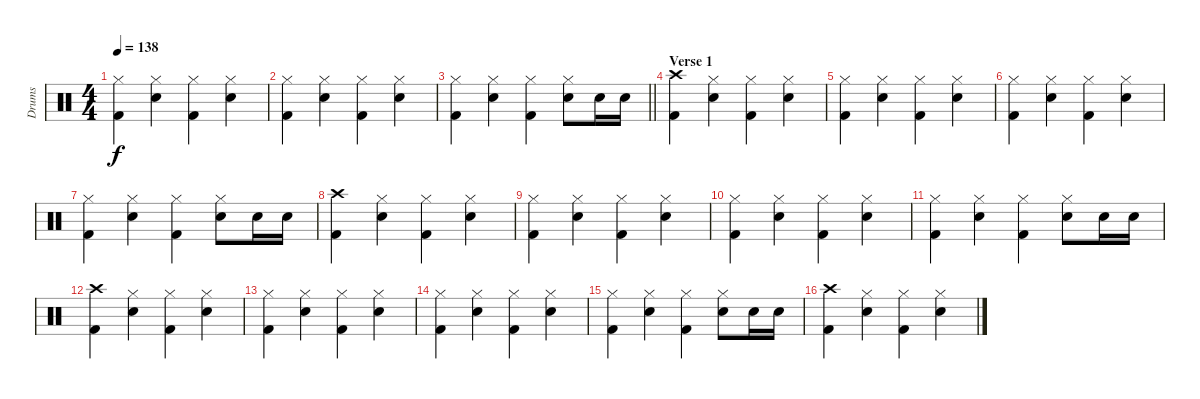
\track ("Drums" "Drums") {instrument percussion}
\staff {score}
\articulation defaults
\ts (4 4)
\tempo 138
\clef neutral
\ks c
("Hi-Hat (closed)" "Kick (hit) 2").4{dy f} ("Snare (hit) 2" "Hi-Hat (closed)").4 ("Hi-Hat (closed)" "Kick (hit) 2").4 ("Snare (hit) 2" "Hi-Hat (closed)").4 |
("Hi-Hat (closed)" "Kick (hit) 2").4 ("Snare (hit) 2" "Hi-Hat (closed)").4 ("Hi-Hat (closed)" "Kick (hit) 2").4 ("Snare (hit) 2" "Hi-Hat (closed)").4 |
\barLineRight lightlight
("Hi-Hat (closed)" "Kick (hit) 2").4 ("Snare (hit) 2" "Hi-Hat (closed)").4 ("Hi-Hat (closed)" "Kick (hit) 2").4 ("Snare (hit) 2" "Hi-Hat (closed)").8 "Snare (hit) 2".16 "Snare (hit) 2".16 |
\section ("" "Verse 1")
("Crash high (hit)" "Kick (hit) 2").4 ("Snare (hit) 2" "Hi-Hat (closed)").4 ("Hi-Hat (closed)" "Kick (hit) 2").4 ("Snare (hit) 2" "Hi-Hat (closed)").4 |
("Hi-Hat (closed)" "Kick (hit) 2").4 ("Snare (hit) 2" "Hi-Hat (closed)").4 ("Hi-Hat (closed)" "Kick (hit) 2").4 ("Snare (hit) 2" "Hi-Hat (closed)").4 |
("Hi-Hat (closed)" "Kick (hit) 2").4 ("Snare (hit) 2" "Hi-Hat (closed)").4 ("Hi-Hat (closed)" "Kick (hit) 2").4 ("Snare (hit) 2" "Hi-Hat (closed)").4 |
("Hi-Hat (closed)" "Kick (hit) 2").4 ("Snare (hit) 2" "Hi-Hat (closed)").4 ("Hi-Hat (closed)" "Kick (hit) 2").4 ("Snare (hit) 2" "Hi-Hat (closed)").8 "Snare (hit) 2".16 "Snare (hit) 2".16 |
("Crash high (hit)" "Kick (hit) 2").4 ("Snare (hit) 2" "Hi-Hat (closed)").4 ("Hi-Hat (closed)" "Kick (hit) 2").4 ("Snare (hit) 2" "Hi-Hat (closed)").4 |
("Hi-Hat (closed)" "Kick (hit) 2").4 ("Snare (hit) 2" "Hi-Hat (closed)").4 ("Hi-Hat (closed)" "Kick (hit) 2").4 ("Snare (hit) 2" "Hi-Hat (closed)").4 |
("Hi-Hat (closed)" "Kick (hit) 2").4 ("Snare (hit) 2" "Hi-Hat (closed)").4 ("Hi-Hat (closed)" "Kick (hit) 2").4 ("Snare (hit) 2" "Hi-Hat (closed)").4 |
("Hi-Hat (closed)" "Kick (hit) 2").4 ("Snare (hit) 2" "Hi-Hat (closed)").4 ("Hi-Hat (closed)" "Kick (hit) 2").4 ("Snare (hit) 2" "Hi-Hat (closed)").8 "Snare (hit) 2".16 "Snare (hit) 2".16 |
("Crash high (hit)" "Kick (hit) 2").4 ("Snare (hit) 2" "Hi-Hat (closed)").4 ("Hi-Hat (closed)" "Kick (hit) 2").4 ("Snare (hit) 2" "Hi-Hat (closed)").4 |
("Hi-Hat (closed)" "Kick (hit) 2").4 ("Snare (hit) 2" "Hi-Hat (closed)").4 ("Hi-Hat (closed)" "Kick (hit) 2").4 ("Snare (hit) 2" "Hi-Hat (closed)").4 |
("Hi-Hat (closed)" "Kick (hit) 2").4 ("Snare (hit) 2" "Hi-Hat (closed)").4 ("Hi-Hat (closed)" "Kick (hit) 2").4 ("Snare (hit) 2" "Hi-Hat (closed)").4 |
("Hi-Hat (closed)" "Kick (hit) 2").4 ("Snare (hit) 2" "Hi-Hat (closed)").4 ("Hi-Hat (closed)" "Kick (hit) 2").4 ("Snare (hit) 2" "Hi-Hat (closed)").8 "Snare (hit) 2".16 "Snare (hit) 2".16 |
("Crash high (hit)" "Kick (hit) 2").4 ("Snare (hit) 2" "Hi-Hat (closed)").4 ("Hi-Hat (closed)" "Kick (hit) 2").4 ("Snare (hit) 2" "Hi-Hat (closed)").4
